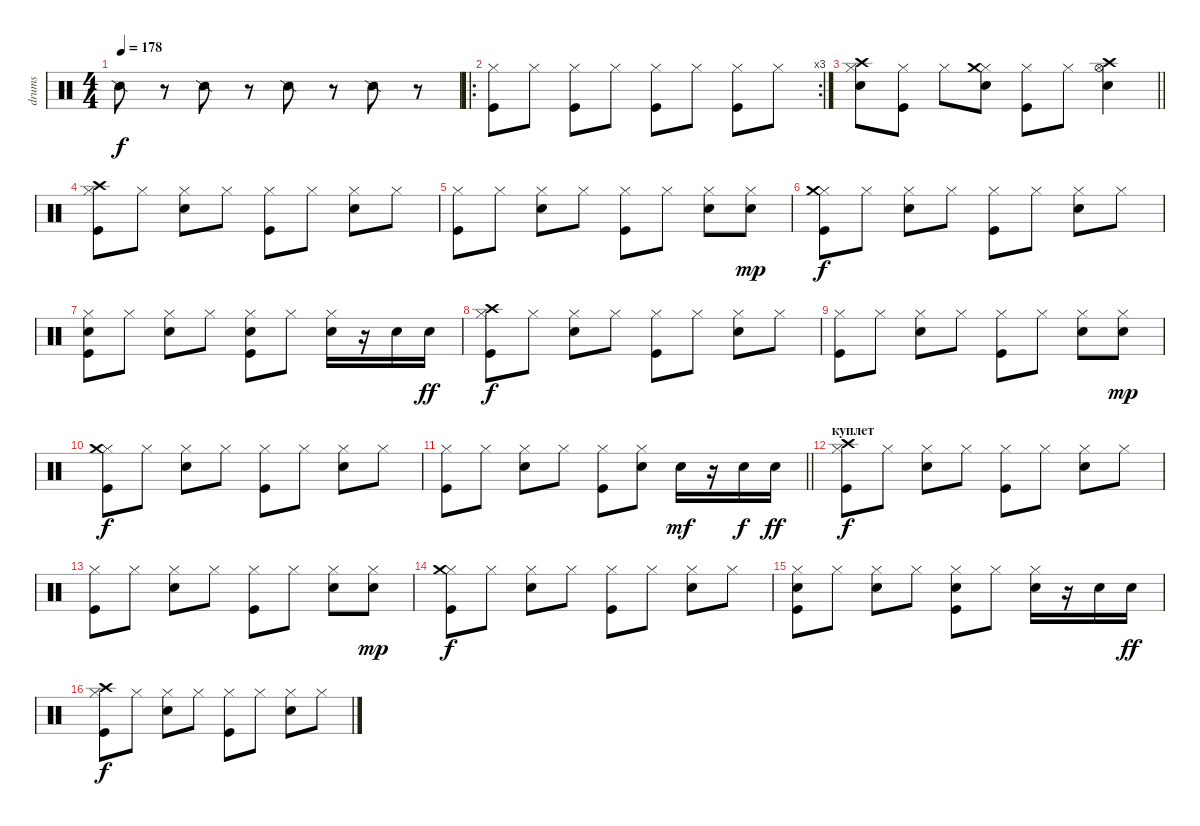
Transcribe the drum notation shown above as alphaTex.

\track ("drums" "drums") {instrument percussion}
\staff {score}
\articulation defaults
\ts (4 4)
\tempo 178
\clef neutral
\ks c "Snare (side stick) 2".8{dy f}
r.8 "Snare (side stick) 2".8 r.8 "Snare (side stick) 2".8 r.8 "Snare (side stick) 2".8 r.8 |
\ro
\rc 3
("Hi-Hat (closed)" "Kick (hit)").8 "Hi-Hat (closed)".8 ("Hi-Hat (closed)" "Kick (hit)").8 "Hi-Hat (closed)".8 ("Hi-Hat (closed)" "Kick (hit)").8 "Hi-Hat (closed)".8 ("Hi-Hat (closed)" "Kick (hit)").8 "Hi-Hat (closed)".8 |
\barLineRight lightlight
("Hi-Hat (closed)" "Electric Snare (hit)" "Crash high (hit)").8 ("Hi-Hat (closed)" "Kick (hit)").8 "Hi-Hat (closed)".8 ("Hi-Hat (closed)" "Electric Snare (hit)" "Crash medium (hit)").8 ("Hi-Hat (closed)" "Kick (hit)").8 "Hi-Hat (closed)".8 ("Crash high (hit)" "Electric Snare (hit)" "Hi-Hat (open)").4 |
("Hi-Hat (closed)" "Crash high (hit)" "Kick (hit)").8 "Hi-Hat (closed)".8 ("Hi-Hat (closed)" "Electric Snare (hit)").8 "Hi-Hat (closed)".8 ("Hi-Hat (closed)" "Kick (hit)").8 "Hi-Hat (closed)".8 ("Hi-Hat (closed)" "Electric Snare (hit)").8 "Hi-Hat (closed)".8 |
("Hi-Hat (closed)" "Kick (hit)").8 "Hi-Hat (closed)".8 ("Hi-Hat (closed)" "Electric Snare (hit)").8 "Hi-Hat (closed)".8 ("Hi-Hat (closed)" "Kick (hit)").8 "Hi-Hat (closed)".8 ("Hi-Hat (closed)" "Electric Snare (hit)").8 ("Hi-Hat (closed)" "Electric Snare (hit)").8{dy mp} |
("Hi-Hat (closed)" "Crash medium (hit)" "Kick (hit)").8{dy f} "Hi-Hat (closed)".8 ("Hi-Hat (closed)" "Electric Snare (hit)").8 "Hi-Hat (closed)".8 ("Hi-Hat (closed)" "Kick (hit)").8 "Hi-Hat (closed)".8 ("Hi-Hat (closed)" "Electric Snare (hit)").8 "Hi-Hat (closed)".8 |
("Hi-Hat (closed)" "Electric Snare (hit)" "Kick (hit)").8 "Hi-Hat (closed)".8 ("Hi-Hat (closed)" "Electric Snare (hit)").8 "Hi-Hat (closed)".8 ("Hi-Hat (closed)" "Electric Snare (hit)" "Kick (hit)").8 "Hi-Hat (closed)".8 ("Hi-Hat (closed)" "Electric Snare (hit)").16 r.16 "Electric Snare (hit)".16 "Electric Snare (hit)".16{dy ff} |
("Hi-Hat (closed)" "Crash high (hit)" "Kick (hit)").8{dy f} "Hi-Hat (closed)".8 ("Hi-Hat (closed)" "Electric Snare (hit)").8 "Hi-Hat (closed)".8 ("Hi-Hat (closed)" "Kick (hit)").8 "Hi-Hat (closed)".8 ("Hi-Hat (closed)" "Electric Snare (hit)").8 "Hi-Hat (closed)".8 |
("Hi-Hat (closed)" "Kick (hit)").8 "Hi-Hat (closed)".8 ("Hi-Hat (closed)" "Electric Snare (hit)").8 "Hi-Hat (closed)".8 ("Hi-Hat (closed)" "Kick (hit)").8 "Hi-Hat (closed)".8 ("Hi-Hat (closed)" "Electric Snare (hit)").8 ("Hi-Hat (closed)" "Electric Snare (hit)").8{dy mp} |
("Hi-Hat (closed)" "Crash medium (hit)" "Kick (hit)").8{dy f} "Hi-Hat (closed)".8 ("Hi-Hat (closed)" "Electric Snare (hit)").8 "Hi-Hat (closed)".8 ("Hi-Hat (closed)" "Kick (hit)").8 "Hi-Hat (closed)".8 ("Hi-Hat (closed)" "Electric Snare (hit)").8 "Hi-Hat (closed)".8 |
\barLineRight lightlight
("Hi-Hat (closed)" "Kick (hit)").8 "Hi-Hat (closed)".8 ("Hi-Hat (closed)" "Electric Snare (hit)").8 "Hi-Hat (closed)".8 ("Hi-Hat (closed)" "Kick (hit)").8 ("Hi-Hat (closed)" "Electric Snare (hit)").8 "Electric Snare (hit)".16{dy mf} r.16 "Electric Snare (hit)".16{dy f} "Electric Snare (hit)".16{dy ff} |
\section ("" "куплет")
("Hi-Hat (closed)" "Crash high (hit)" "Kick (hit)").8{dy f} "Hi-Hat (closed)".8 ("Hi-Hat (closed)" "Electric Snare (hit)").8 "Hi-Hat (closed)".8 ("Hi-Hat (closed)" "Kick (hit)").8 "Hi-Hat (closed)".8 ("Hi-Hat (closed)" "Electric Snare (hit)").8 "Hi-Hat (closed)".8 |
("Hi-Hat (closed)" "Kick (hit)").8 "Hi-Hat (closed)".8 ("Hi-Hat (closed)" "Electric Snare (hit)").8 "Hi-Hat (closed)".8 ("Hi-Hat (closed)" "Kick (hit)").8 "Hi-Hat (closed)".8 ("Hi-Hat (closed)" "Electric Snare (hit)").8 ("Hi-Hat (closed)" "Electric Snare (hit)").8{dy mp} |
("Hi-Hat (closed)" "Crash medium (hit)" "Kick (hit)").8{dy f} "Hi-Hat (closed)".8 ("Hi-Hat (closed)" "Electric Snare (hit)").8 "Hi-Hat (closed)".8 ("Hi-Hat (closed)" "Kick (hit)").8 "Hi-Hat (closed)".8 ("Hi-Hat (closed)" "Electric Snare (hit)").8 "Hi-Hat (closed)".8 |
("Hi-Hat (closed)" "Electric Snare (hit)" "Kick (hit)").8 "Hi-Hat (closed)".8 ("Hi-Hat (closed)" "Electric Snare (hit)").8 "Hi-Hat (closed)".8 ("Hi-Hat (closed)" "Electric Snare (hit)" "Kick (hit)").8 "Hi-Hat (closed)".8 ("Hi-Hat (closed)" "Electric Snare (hit)").16 r.16 "Electric Snare (hit)".16 "Electric Snare (hit)".16{dy ff} |
("Hi-Hat (closed)" "Crash high (hit)" "Kick (hit)").8{dy f} "Hi-Hat (closed)".8 ("Hi-Hat (closed)" "Electric Snare (hit)").8 "Hi-Hat (closed)".8 ("Hi-Hat (closed)" "Kick (hit)").8 "Hi-Hat (closed)".8 ("Hi-Hat (closed)" "Electric Snare (hit)").8 "Hi-Hat (closed)".8
